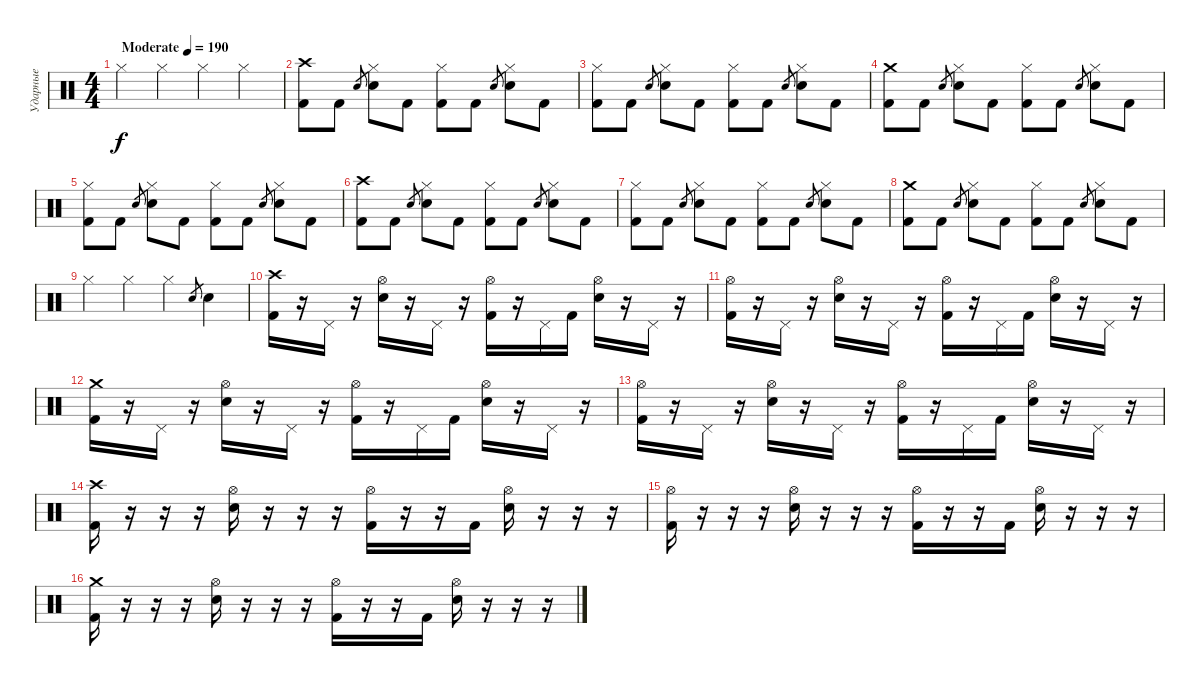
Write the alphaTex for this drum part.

\track ("Ударные" "Ударные") {instrument percussion}
\staff {score}
\articulation defaults
\ts (4 4)
\tempo (190 "Moderate")
\clef neutral
\ks c "Hi-Hat (closed)".4{dy f} "Hi-Hat (closed)".4 "Hi-Hat (closed)".4 "Hi-Hat (closed)".4
|
("Crash high (hit)" "Kick (hit) 2").8 "Kick (hit) 2".8 "Electric Snare (hit)".8{gr} ("Hi-Hat (closed)" "Electric Snare (hit)").8 "Kick (hit) 2".8 ("Hi-Hat (closed)" "Kick (hit) 2").8 "Kick (hit) 2".8 "Electric Snare (hit)".8{gr} ("Hi-Hat (closed)" "Electric Snare (hit)").8 "Kick (hit) 2".8 |
("Hi-Hat (closed)" "Kick (hit) 2").8 "Kick (hit) 2".8 "Electric Snare (hit)".8{gr} ("Hi-Hat (closed)" "Electric Snare (hit)").8 "Kick (hit) 2".8 ("Hi-Hat (closed)" "Kick (hit) 2").8 "Kick (hit) 2".8 "Electric Snare (hit)".8{gr} ("Hi-Hat (closed)" "Electric Snare (hit)").8 "Kick (hit) 2".8 |
("Crash medium (hit)" "Kick (hit) 2").8 "Kick (hit) 2".8 "Electric Snare (hit)".8{gr} ("Hi-Hat (closed)" "Electric Snare (hit)").8 "Kick (hit) 2".8 ("Hi-Hat (closed)" "Kick (hit) 2").8 "Kick (hit) 2".8 "Electric Snare (hit)".8{gr} ("Hi-Hat (closed)" "Electric Snare (hit)").8 "Kick (hit) 2".8 |
("Hi-Hat (closed)" "Kick (hit) 2").8 "Kick (hit) 2".8 "Electric Snare (hit)".8{gr} ("Hi-Hat (closed)" "Electric Snare (hit)").8 "Kick (hit) 2".8 ("Hi-Hat (closed)" "Kick (hit) 2").8 "Kick (hit) 2".8 "Electric Snare (hit)".8{gr} ("Hi-Hat (closed)" "Electric Snare (hit)").8 "Kick (hit) 2".8 |
("Crash high (hit)" "Kick (hit) 2").8 "Kick (hit) 2".8 "Electric Snare (hit)".8{gr} ("Hi-Hat (closed)" "Electric Snare (hit)").8 "Kick (hit) 2".8 ("Hi-Hat (closed)" "Kick (hit) 2").8 "Kick (hit) 2".8 "Electric Snare (hit)".8{gr} ("Hi-Hat (closed)" "Electric Snare (hit)").8 "Kick (hit) 2".8 |
("Hi-Hat (closed)" "Kick (hit) 2").8 "Kick (hit) 2".8 "Electric Snare (hit)".8{gr} ("Hi-Hat (closed)" "Electric Snare (hit)").8 "Kick (hit) 2".8 ("Hi-Hat (closed)" "Kick (hit) 2").8 "Kick (hit) 2".8 "Electric Snare (hit)".8{gr} ("Hi-Hat (closed)" "Electric Snare (hit)").8 "Kick (hit) 2".8 |
("Crash medium (hit)" "Kick (hit) 2").8 "Kick (hit) 2".8 "Electric Snare (hit)".8{gr} ("Hi-Hat (closed)" "Electric Snare (hit)").8 "Kick (hit) 2".8 ("Hi-Hat (closed)" "Kick (hit) 2").8 "Kick (hit) 2".8 "Electric Snare (hit)".8{gr} ("Hi-Hat (closed)" "Electric Snare (hit)").8 "Kick (hit) 2".8 |
"Hi-Hat (closed)".4 "Hi-Hat (closed)".4 "Hi-Hat (closed)".4 "Electric Snare (hit)".8{gr} "Electric Snare (hit)".4 |
("Crash high (hit)" "Kick (hit) 2").16 r.16 "Pedal Hi-Hat (hit)".16 r.16 ("Hi-Hat (open)" "Electric Snare (hit)").16 r.16 "Pedal Hi-Hat (hit)".16 r.16 ("Hi-Hat (open)" "Kick (hit) 2").16 r.16 "Pedal Hi-Hat (hit)".16 "Kick (hit) 2".16 ("Hi-Hat (open)" "Electric Snare (hit)").16 r.16 "Pedal Hi-Hat (hit)".16 r.16 |
("Hi-Hat (open)" "Kick (hit) 2").16 r.16 "Pedal Hi-Hat (hit)".16 r.16 ("Hi-Hat (open)" "Electric Snare (hit)").16 r.16 "Pedal Hi-Hat (hit)".16 r.16 ("Hi-Hat (open)" "Kick (hit) 2").16 r.16 "Pedal Hi-Hat (hit)".16 "Kick (hit) 2".16 ("Hi-Hat (open)" "Electric Snare (hit)").16 r.16 "Pedal Hi-Hat (hit)".16 r.16 |
("Crash medium (hit)" "Kick (hit) 2").16 r.16 "Pedal Hi-Hat (hit)".16 r.16 ("Hi-Hat (open)" "Electric Snare (hit)").16 r.16 "Pedal Hi-Hat (hit)".16 r.16 ("Hi-Hat (open)" "Kick (hit) 2").16 r.16 "Pedal Hi-Hat (hit)".16 "Kick (hit) 2".16 ("Hi-Hat (open)" "Electric Snare (hit)").16 r.16 "Pedal Hi-Hat (hit)".16 r.16 |
("Hi-Hat (open)" "Kick (hit) 2").16 r.16 "Pedal Hi-Hat (hit)".16 r.16 ("Hi-Hat (open)" "Electric Snare (hit)").16 r.16 "Pedal Hi-Hat (hit)".16 r.16 ("Hi-Hat (open)" "Kick (hit) 2").16 r.16 "Pedal Hi-Hat (hit)".16 "Kick (hit) 2".16 ("Hi-Hat (open)" "Electric Snare (hit)").16 r.16 "Pedal Hi-Hat (hit)".16 r.16 |
("Crash high (hit)" "Kick (hit) 2").16 r.16 r.16 r.16 ("Hi-Hat (open)" "Electric Snare (hit)").16 r.16 r.16 r.16 ("Hi-Hat (open)" "Kick (hit) 2").16 r.16 r.16 "Kick (hit) 2".16 ("Hi-Hat (open)" "Electric Snare (hit)").16 r.16 r.16 r.16 |
("Hi-Hat (open)" "Kick (hit) 2").16 r.16 r.16 r.16 ("Hi-Hat (open)" "Electric Snare (hit)").16 r.16 r.16 r.16 ("Hi-Hat (open)" "Kick (hit) 2").16 r.16 r.16 "Kick (hit) 2".16 ("Hi-Hat (open)" "Electric Snare (hit)").16 r.16 r.16 r.16 |
("Crash medium (hit)" "Kick (hit) 2").16 r.16 r.16 r.16 ("Hi-Hat (open)" "Electric Snare (hit)").16 r.16 r.16 r.16 ("Hi-Hat (open)" "Kick (hit) 2").16 r.16 r.16 "Kick (hit) 2".16 ("Hi-Hat (open)" "Electric Snare (hit)").16 r.16 r.16 r.16
